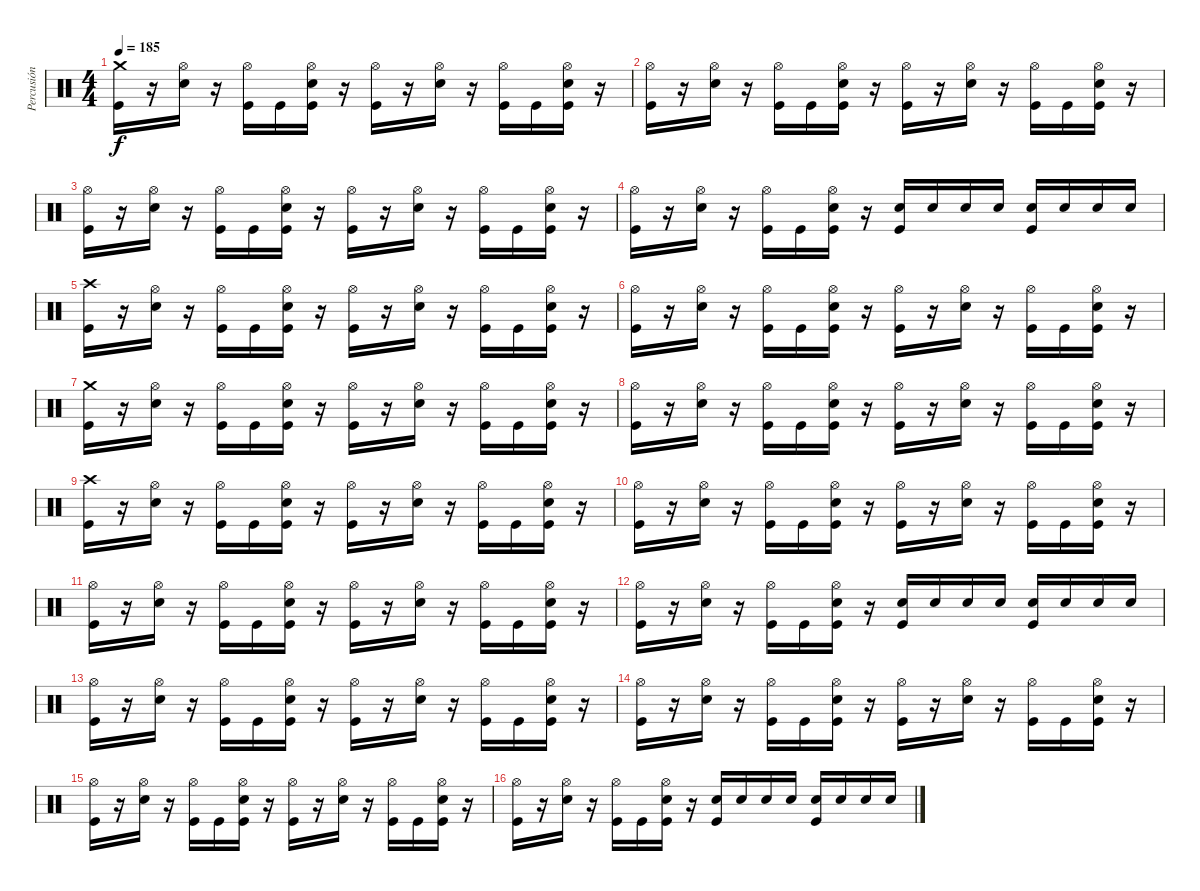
\track ("Percusión" "Percusión") {instrument percussion}
\staff {score}
\articulation defaults
\ts (4 4)
\tempo 185
\clef neutral
\ks c
("Crash medium (hit)" "Kick (hit)").16{dy f} r.16 ("Hi-Hat (open)" "Electric Snare (hit)").16 r.16 ("Hi-Hat (open)" "Kick (hit)").16 "Kick (hit)".16 ("Hi-Hat (open)" "Electric Snare (hit)" "Kick (hit)").16 r.16 ("Hi-Hat (open)" "Kick (hit)").16 r.16 ("Hi-Hat (open)" "Electric Snare (hit)").16 r.16 ("Hi-Hat (open)" "Kick (hit)").16 "Kick (hit)".16 ("Hi-Hat (open)" "Electric Snare (hit)" "Kick (hit)").16 r.16 |
("Hi-Hat (open)" "Kick (hit)").16 r.16 ("Hi-Hat (open)" "Electric Snare (hit)").16 r.16 ("Hi-Hat (open)" "Kick (hit)").16 "Kick (hit)".16 ("Hi-Hat (open)" "Electric Snare (hit)" "Kick (hit)").16 r.16 ("Hi-Hat (open)" "Kick (hit)").16 r.16 ("Hi-Hat (open)" "Electric Snare (hit)").16 r.16 ("Hi-Hat (open)" "Kick (hit)").16 "Kick (hit)".16 ("Hi-Hat (open)" "Electric Snare (hit)" "Kick (hit)").16 r.16 |
("Hi-Hat (open)" "Kick (hit)").16 r.16 ("Hi-Hat (open)" "Electric Snare (hit)").16 r.16 ("Hi-Hat (open)" "Kick (hit)").16 "Kick (hit)".16 ("Hi-Hat (open)" "Electric Snare (hit)" "Kick (hit)").16 r.16 ("Hi-Hat (open)" "Kick (hit)").16 r.16 ("Hi-Hat (open)" "Electric Snare (hit)").16 r.16 ("Hi-Hat (open)" "Kick (hit)").16 "Kick (hit)".16 ("Hi-Hat (open)" "Electric Snare (hit)" "Kick (hit)").16 r.16 |
("Hi-Hat (open)" "Kick (hit)").16 r.16 ("Hi-Hat (open)" "Electric Snare (hit)").16 r.16 ("Hi-Hat (open)" "Kick (hit)").16 "Kick (hit)".16 ("Hi-Hat (open)" "Electric Snare (hit)" "Kick (hit)").16 r.16 ("Electric Snare (hit)" "Kick (hit)").16 "Electric Snare (hit)".16 "Electric Snare (hit)".16 "Electric Snare (hit)".16 ("Electric Snare (hit)" "Kick (hit)").16 "Electric Snare (hit)".16 "Electric Snare (hit)".16 "Electric Snare (hit)".16 |
("Crash high (hit)" "Kick (hit)").16 r.16 ("Hi-Hat (open)" "Electric Snare (hit)").16 r.16 ("Hi-Hat (open)" "Kick (hit)").16 "Kick (hit)".16 ("Hi-Hat (open)" "Electric Snare (hit)" "Kick (hit)").16 r.16 ("Hi-Hat (open)" "Kick (hit)").16 r.16 ("Hi-Hat (open)" "Electric Snare (hit)").16 r.16 ("Hi-Hat (open)" "Kick (hit)").16 "Kick (hit)".16 ("Hi-Hat (open)" "Electric Snare (hit)" "Kick (hit)").16 r.16 |
("Hi-Hat (open)" "Kick (hit)").16 r.16 ("Hi-Hat (open)" "Electric Snare (hit)").16 r.16 ("Hi-Hat (open)" "Kick (hit)").16 "Kick (hit)".16 ("Hi-Hat (open)" "Electric Snare (hit)" "Kick (hit)").16 r.16 ("Hi-Hat (open)" "Kick (hit)").16 r.16 ("Hi-Hat (open)" "Electric Snare (hit)").16 r.16 ("Hi-Hat (open)" "Kick (hit)").16 "Kick (hit)".16 ("Hi-Hat (open)" "Electric Snare (hit)" "Kick (hit)").16 r.16 |
("Crash medium (hit)" "Kick (hit)").16 r.16 ("Hi-Hat (open)" "Electric Snare (hit)").16 r.16 ("Hi-Hat (open)" "Kick (hit)").16 "Kick (hit)".16 ("Hi-Hat (open)" "Electric Snare (hit)" "Kick (hit)").16 r.16 ("Hi-Hat (open)" "Kick (hit)").16 r.16 ("Hi-Hat (open)" "Electric Snare (hit)").16 r.16 ("Hi-Hat (open)" "Kick (hit)").16 "Kick (hit)".16 ("Hi-Hat (open)" "Electric Snare (hit)" "Kick (hit)").16 r.16 |
("Hi-Hat (open)" "Kick (hit)").16 r.16 ("Hi-Hat (open)" "Electric Snare (hit)").16 r.16 ("Hi-Hat (open)" "Kick (hit)").16 "Kick (hit)".16 ("Hi-Hat (open)" "Electric Snare (hit)" "Kick (hit)").16 r.16 ("Hi-Hat (open)" "Kick (hit)").16 r.16 ("Hi-Hat (open)" "Electric Snare (hit)").16 r.16 ("Hi-Hat (open)" "Kick (hit)").16 "Kick (hit)".16 ("Hi-Hat (open)" "Electric Snare (hit)" "Kick (hit)").16 r.16 |
("Crash high (hit)" "Kick (hit)").16 r.16 ("Hi-Hat (open)" "Electric Snare (hit)").16 r.16 ("Hi-Hat (open)" "Kick (hit)").16 "Kick (hit)".16 ("Hi-Hat (open)" "Electric Snare (hit)" "Kick (hit)").16 r.16 ("Hi-Hat (open)" "Kick (hit)").16 r.16 ("Hi-Hat (open)" "Electric Snare (hit)").16 r.16 ("Hi-Hat (open)" "Kick (hit)").16 "Kick (hit)".16 ("Hi-Hat (open)" "Electric Snare (hit)" "Kick (hit)").16 r.16 |
("Hi-Hat (open)" "Kick (hit)").16 r.16 ("Hi-Hat (open)" "Electric Snare (hit)").16 r.16 ("Hi-Hat (open)" "Kick (hit)").16 "Kick (hit)".16 ("Hi-Hat (open)" "Electric Snare (hit)" "Kick (hit)").16 r.16 ("Hi-Hat (open)" "Kick (hit)").16 r.16 ("Hi-Hat (open)" "Electric Snare (hit)").16 r.16 ("Hi-Hat (open)" "Kick (hit)").16 "Kick (hit)".16 ("Hi-Hat (open)" "Electric Snare (hit)" "Kick (hit)").16 r.16 |
("Hi-Hat (open)" "Kick (hit)").16 r.16 ("Hi-Hat (open)" "Electric Snare (hit)").16 r.16 ("Hi-Hat (open)" "Kick (hit)").16 "Kick (hit)".16 ("Hi-Hat (open)" "Electric Snare (hit)" "Kick (hit)").16 r.16 ("Hi-Hat (open)" "Kick (hit)").16 r.16 ("Hi-Hat (open)" "Electric Snare (hit)").16 r.16 ("Hi-Hat (open)" "Kick (hit)").16 "Kick (hit)".16 ("Hi-Hat (open)" "Electric Snare (hit)" "Kick (hit)").16 r.16 |
("Hi-Hat (open)" "Kick (hit)").16 r.16 ("Hi-Hat (open)" "Electric Snare (hit)").16 r.16 ("Hi-Hat (open)" "Kick (hit)").16 "Kick (hit)".16 ("Hi-Hat (open)" "Electric Snare (hit)" "Kick (hit)").16 r.16 ("Electric Snare (hit)" "Kick (hit)").16 "Electric Snare (hit)".16 "Electric Snare (hit)".16 "Electric Snare (hit)".16 ("Electric Snare (hit)" "Kick (hit)").16 "Electric Snare (hit)".16 "Electric Snare (hit)".16 "Electric Snare (hit)".16 |
("Hi-Hat (open)" "Kick (hit)").16 r.16 ("Hi-Hat (open)" "Electric Snare (hit)").16 r.16 ("Hi-Hat (open)" "Kick (hit)").16 "Kick (hit)".16 ("Hi-Hat (open)" "Electric Snare (hit)" "Kick (hit)").16 r.16 ("Hi-Hat (open)" "Kick (hit)").16 r.16 ("Hi-Hat (open)" "Electric Snare (hit)").16 r.16 ("Hi-Hat (open)" "Kick (hit)").16 "Kick (hit)".16 ("Hi-Hat (open)" "Electric Snare (hit)" "Kick (hit)").16 r.16 |
("Hi-Hat (open)" "Kick (hit)").16 r.16 ("Hi-Hat (open)" "Electric Snare (hit)").16 r.16 ("Hi-Hat (open)" "Kick (hit)").16 "Kick (hit)".16 ("Hi-Hat (open)" "Electric Snare (hit)" "Kick (hit)").16 r.16 ("Hi-Hat (open)" "Kick (hit)").16 r.16 ("Hi-Hat (open)" "Electric Snare (hit)").16 r.16 ("Hi-Hat (open)" "Kick (hit)").16 "Kick (hit)".16 ("Hi-Hat (open)" "Electric Snare (hit)" "Kick (hit)").16 r.16 |
("Hi-Hat (open)" "Kick (hit)").16 r.16 ("Hi-Hat (open)" "Electric Snare (hit)").16 r.16 ("Hi-Hat (open)" "Kick (hit)").16 "Kick (hit)".16 ("Hi-Hat (open)" "Electric Snare (hit)" "Kick (hit)").16 r.16 ("Hi-Hat (open)" "Kick (hit)").16 r.16 ("Hi-Hat (open)" "Electric Snare (hit)").16 r.16 ("Hi-Hat (open)" "Kick (hit)").16 "Kick (hit)".16 ("Hi-Hat (open)" "Electric Snare (hit)" "Kick (hit)").16 r.16 |
("Hi-Hat (open)" "Kick (hit)").16 r.16 ("Hi-Hat (open)" "Electric Snare (hit)").16 r.16 ("Hi-Hat (open)" "Kick (hit)").16 "Kick (hit)".16 ("Hi-Hat (open)" "Electric Snare (hit)" "Kick (hit)").16 r.16 ("Electric Snare (hit)" "Kick (hit)").16 "Electric Snare (hit)".16 "Electric Snare (hit)".16 "Electric Snare (hit)".16 ("Electric Snare (hit)" "Kick (hit)").16 "Electric Snare (hit)".16 "Electric Snare (hit)".16 "Electric Snare (hit)".16
